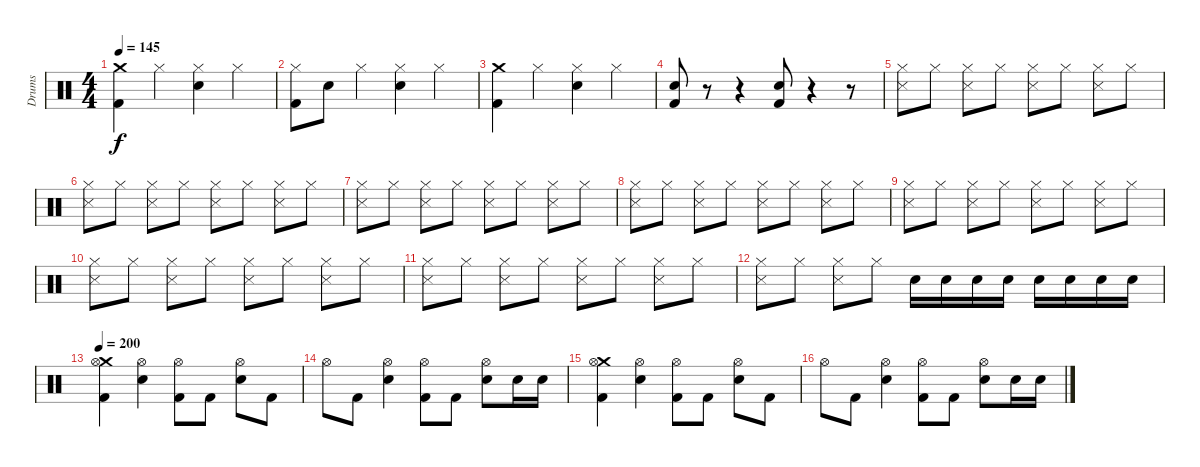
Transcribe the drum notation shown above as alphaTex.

\track ("Drums" "Drums") {instrument percussion}
\staff {score}
\articulation defaults
\ts (4 4)
\tempo 145
\clef neutral
\ks c
("Crash medium (hit)" "Kick (hit) 2").4{dy f} "Hi-Hat (closed)".4 ("Hi-Hat (closed)" "Snare (hit) 2").4 "Hi-Hat (closed)".4 |
("Hi-Hat (closed)" "Kick (hit) 2").8 "Snare (hit) 2".8 "Hi-Hat (closed)".4 ("Hi-Hat (closed)" "Snare (hit) 2").4 "Hi-Hat (closed)".4 |
("Crash medium (hit)" "Kick (hit) 2").4 "Hi-Hat (closed)".4 ("Hi-Hat (closed)" "Snare (hit) 2").4 "Hi-Hat (closed)".4 |
("Snare (hit) 2" "Kick (hit) 2").8 r.8 r.4 ("Snare (hit) 2" "Kick (hit) 2").8 r.4 r.8 |
("Hi-Hat (closed)" "Snare (side stick) 3").8 "Hi-Hat (closed)".8 ("Hi-Hat (closed)" "Snare (side stick) 3").8 "Hi-Hat (closed)".8 ("Hi-Hat (closed)" "Snare (side stick) 3").8 "Hi-Hat (closed)".8 ("Hi-Hat (closed)" "Snare (side stick) 3").8 "Hi-Hat (closed)".8 |
("Hi-Hat (closed)" "Snare (side stick) 3").8 "Hi-Hat (closed)".8 ("Hi-Hat (closed)" "Snare (side stick) 3").8 "Hi-Hat (closed)".8 ("Hi-Hat (closed)" "Snare (side stick) 3").8 "Hi-Hat (closed)".8 ("Hi-Hat (closed)" "Snare (side stick) 3").8 "Hi-Hat (closed)".8 |
("Hi-Hat (closed)" "Snare (side stick) 3").8 "Hi-Hat (closed)".8 ("Hi-Hat (closed)" "Snare (side stick) 3").8 "Hi-Hat (closed)".8 ("Hi-Hat (closed)" "Snare (side stick) 3").8 "Hi-Hat (closed)".8 ("Hi-Hat (closed)" "Snare (side stick) 3").8 "Hi-Hat (closed)".8 |
("Hi-Hat (closed)" "Snare (side stick) 3").8 "Hi-Hat (closed)".8 ("Hi-Hat (closed)" "Snare (side stick) 3").8 "Hi-Hat (closed)".8 ("Hi-Hat (closed)" "Snare (side stick) 3").8 "Hi-Hat (closed)".8 ("Hi-Hat (closed)" "Snare (side stick) 3").8 "Hi-Hat (closed)".8 |
("Hi-Hat (closed)" "Snare (side stick) 3").8 "Hi-Hat (closed)".8 ("Hi-Hat (closed)" "Snare (side stick) 3").8 "Hi-Hat (closed)".8 ("Hi-Hat (closed)" "Snare (side stick) 3").8 "Hi-Hat (closed)".8 ("Hi-Hat (closed)" "Snare (side stick) 3").8 "Hi-Hat (closed)".8 |
("Hi-Hat (closed)" "Snare (side stick) 3").8 "Hi-Hat (closed)".8 ("Hi-Hat (closed)" "Snare (side stick) 3").8 "Hi-Hat (closed)".8 ("Hi-Hat (closed)" "Snare (side stick) 3").8 "Hi-Hat (closed)".8 ("Hi-Hat (closed)" "Snare (side stick) 3").8 "Hi-Hat (closed)".8 |
("Hi-Hat (closed)" "Snare (side stick) 3").8 "Hi-Hat (closed)".8 ("Hi-Hat (closed)" "Snare (side stick) 3").8 "Hi-Hat (closed)".8 ("Hi-Hat (closed)" "Snare (side stick) 3").8 "Hi-Hat (closed)".8 ("Hi-Hat (closed)" "Snare (side stick) 3").8 "Hi-Hat (closed)".8 |
("Hi-Hat (closed)" "Snare (side stick) 3").8 "Hi-Hat (closed)".8 ("Hi-Hat (closed)" "Snare (side stick) 3").8 "Hi-Hat (closed)".8 "Snare (hit) 2".16 "Snare (hit) 2".16 "Snare (hit) 2".16 "Snare (hit) 2".16 "Snare (hit) 2".16 "Snare (hit) 2".16 "Snare (hit) 2".16 "Snare (hit) 2".16 |
\tempo 200
("Crash medium (hit)" "Hi-Hat (open)" "Kick (hit) 2").4 ("Hi-Hat (open)" "Snare (hit) 2").4 ("Hi-Hat (open)" "Kick (hit) 2").8 "Kick (hit) 2".8 ("Hi-Hat (open)" "Snare (hit) 2").8 "Kick (hit) 2".8 |
"Hi-Hat (open)".8 "Kick (hit) 2".8 ("Hi-Hat (open)" "Snare (hit) 2").4 ("Hi-Hat (open)" "Kick (hit) 2").8 "Kick (hit) 2".8 ("Hi-Hat (open)" "Snare (hit) 2").8 "Snare (hit) 2".16 "Snare (hit) 2".16 |
("Crash medium (hit)" "Hi-Hat (open)" "Kick (hit) 2").4 ("Hi-Hat (open)" "Snare (hit) 2").4 ("Hi-Hat (open)" "Kick (hit) 2").8 "Kick (hit) 2".8 ("Hi-Hat (open)" "Snare (hit) 2").8 "Kick (hit) 2".8 |
"Hi-Hat (open)".8 "Kick (hit) 2".8 ("Hi-Hat (open)" "Snare (hit) 2").4 ("Hi-Hat (open)" "Kick (hit) 2").8 "Kick (hit) 2".8 ("Hi-Hat (open)" "Snare (hit) 2").8 "Snare (hit) 2".16 "Snare (hit) 2".16
